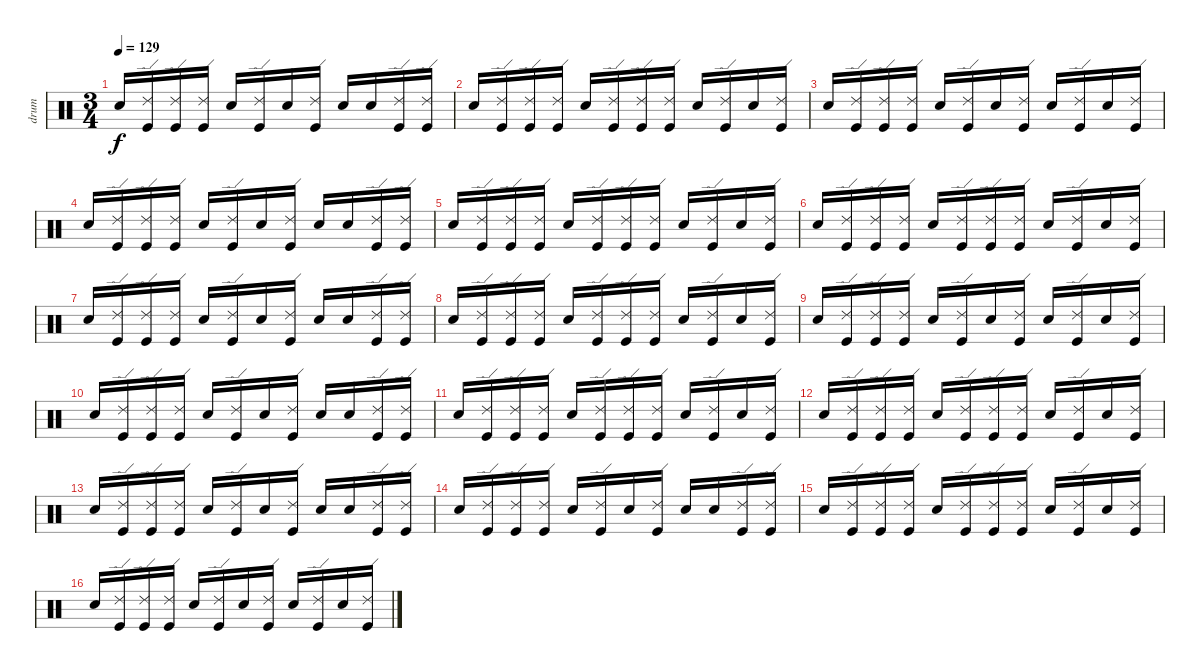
\track ("drum" "drum") {instrument percussion}
\staff {score}
\articulation defaults
\ts (3 4)
\tempo 129
\clef neutral
\ks c "Electric Snare (hit)".16{dy f}
("Kick (hit)" "Ride (edge) 2").16 ("Kick (hit)" "Ride (edge) 2").16 ("Kick (hit)" "Ride (edge) 2").16 "Electric Snare (hit)".16 ("Kick (hit)" "Ride (edge) 2").16 "Electric Snare (hit)".16 ("Kick (hit)" "Ride (edge) 2").16 "Electric Snare (hit)".16 "Electric Snare (hit)".16 ("Kick (hit)" "Ride (edge) 2").16 ("Kick (hit)" "Ride (edge) 2").16 |
"Electric Snare (hit)".16 ("Kick (hit)" "Ride (edge) 2").16 ("Kick (hit)" "Ride (edge) 2").16 ("Kick (hit)" "Ride (edge) 2").16 "Electric Snare (hit)".16 ("Kick (hit)" "Ride (edge) 2").16 ("Kick (hit)" "Ride (edge) 2").16 ("Kick (hit)" "Ride (edge) 2").16 "Electric Snare (hit)".16 ("Kick (hit)" "Ride (edge) 2").16 "Electric Snare (hit)".16 ("Kick (hit)" "Ride (edge) 2").16 |
"Electric Snare (hit)".16 ("Kick (hit)" "Ride (edge) 2").16 ("Kick (hit)" "Ride (edge) 2").16 ("Kick (hit)" "Ride (edge) 2").16 "Electric Snare (hit)".16 ("Kick (hit)" "Ride (edge) 2").16 "Electric Snare (hit)".16 ("Kick (hit)" "Ride (edge) 2").16 "Electric Snare (hit)".16 ("Kick (hit)" "Ride (edge) 2").16 "Electric Snare (hit)".16 ("Kick (hit)" "Ride (edge) 2").16 |
"Electric Snare (hit)".16 ("Kick (hit)" "Ride (edge) 2").16 ("Kick (hit)" "Ride (edge) 2").16 ("Kick (hit)" "Ride (edge) 2").16 "Electric Snare (hit)".16 ("Kick (hit)" "Ride (edge) 2").16 "Electric Snare (hit)".16 ("Kick (hit)" "Ride (edge) 2").16 "Electric Snare (hit)".16 "Electric Snare (hit)".16 ("Kick (hit)" "Ride (edge) 2").16 ("Kick (hit)" "Ride (edge) 2").16 |
"Electric Snare (hit)".16 ("Kick (hit)" "Ride (edge) 2").16 ("Kick (hit)" "Ride (edge) 2").16 ("Kick (hit)" "Ride (edge) 2").16 "Electric Snare (hit)".16 ("Kick (hit)" "Ride (edge) 2").16 ("Kick (hit)" "Ride (edge) 2").16 ("Kick (hit)" "Ride (edge) 2").16 "Electric Snare (hit)".16 ("Kick (hit)" "Ride (edge) 2").16 "Electric Snare (hit)".16 ("Kick (hit)" "Ride (edge) 2").16 |
"Electric Snare (hit)".16 ("Kick (hit)" "Ride (edge) 2").16 ("Kick (hit)" "Ride (edge) 2").16 ("Kick (hit)" "Ride (edge) 2").16 "Electric Snare (hit)".16 ("Kick (hit)" "Ride (edge) 2").16 ("Kick (hit)" "Ride (edge) 2").16 ("Kick (hit)" "Ride (edge) 2").16 "Electric Snare (hit)".16 ("Kick (hit)" "Ride (edge) 2").16 "Electric Snare (hit)".16 ("Kick (hit)" "Ride (edge) 2").16 |
"Electric Snare (hit)".16 ("Kick (hit)" "Ride (edge) 2").16 ("Kick (hit)" "Ride (edge) 2").16 ("Kick (hit)" "Ride (edge) 2").16 "Electric Snare (hit)".16 ("Kick (hit)" "Ride (edge) 2").16 "Electric Snare (hit)".16 ("Kick (hit)" "Ride (edge) 2").16 "Electric Snare (hit)".16 "Electric Snare (hit)".16 ("Kick (hit)" "Ride (edge) 2").16 ("Kick (hit)" "Ride (edge) 2").16 |
"Electric Snare (hit)".16 ("Kick (hit)" "Ride (edge) 2").16 ("Kick (hit)" "Ride (edge) 2").16 ("Kick (hit)" "Ride (edge) 2").16 "Electric Snare (hit)".16 ("Kick (hit)" "Ride (edge) 2").16 ("Kick (hit)" "Ride (edge) 2").16 ("Kick (hit)" "Ride (edge) 2").16 "Electric Snare (hit)".16 ("Kick (hit)" "Ride (edge) 2").16 "Electric Snare (hit)".16 ("Kick (hit)" "Ride (edge) 2").16 |
"Electric Snare (hit)".16 ("Kick (hit)" "Ride (edge) 2").16 ("Kick (hit)" "Ride (edge) 2").16 ("Kick (hit)" "Ride (edge) 2").16 "Electric Snare (hit)".16 ("Kick (hit)" "Ride (edge) 2").16 "Electric Snare (hit)".16 ("Kick (hit)" "Ride (edge) 2").16 "Electric Snare (hit)".16 ("Kick (hit)" "Ride (edge) 2").16 "Electric Snare (hit)".16 ("Kick (hit)" "Ride (edge) 2").16 |
"Electric Snare (hit)".16 ("Kick (hit)" "Ride (edge) 2").16 ("Kick (hit)" "Ride (edge) 2").16 ("Kick (hit)" "Ride (edge) 2").16 "Electric Snare (hit)".16 ("Kick (hit)" "Ride (edge) 2").16 "Electric Snare (hit)".16 ("Kick (hit)" "Ride (edge) 2").16 "Electric Snare (hit)".16 "Electric Snare (hit)".16 ("Kick (hit)" "Ride (edge) 2").16 ("Kick (hit)" "Ride (edge) 2").16 |
"Electric Snare (hit)".16 ("Kick (hit)" "Ride (edge) 2").16 ("Kick (hit)" "Ride (edge) 2").16 ("Kick (hit)" "Ride (edge) 2").16 "Electric Snare (hit)".16 ("Kick (hit)" "Ride (edge) 2").16 ("Kick (hit)" "Ride (edge) 2").16 ("Kick (hit)" "Ride (edge) 2").16 "Electric Snare (hit)".16 ("Kick (hit)" "Ride (edge) 2").16 "Electric Snare (hit)".16 ("Kick (hit)" "Ride (edge) 2").16 |
"Electric Snare (hit)".16 ("Kick (hit)" "Ride (edge) 2").16 ("Kick (hit)" "Ride (edge) 2").16 ("Kick (hit)" "Ride (edge) 2").16 "Electric Snare (hit)".16 ("Kick (hit)" "Ride (edge) 2").16 ("Kick (hit)" "Ride (edge) 2").16 ("Kick (hit)" "Ride (edge) 2").16 "Electric Snare (hit)".16 ("Kick (hit)" "Ride (edge) 2").16 "Electric Snare (hit)".16 ("Kick (hit)" "Ride (edge) 2").16 |
"Electric Snare (hit)".16 ("Kick (hit)" "Ride (edge) 2").16 ("Kick (hit)" "Ride (edge) 2").16 ("Kick (hit)" "Ride (edge) 2").16 "Electric Snare (hit)".16 ("Kick (hit)" "Ride (edge) 2").16 "Electric Snare (hit)".16 ("Kick (hit)" "Ride (edge) 2").16 "Electric Snare (hit)".16 "Electric Snare (hit)".16 ("Kick (hit)" "Ride (edge) 2").16 ("Kick (hit)" "Ride (edge) 2").16 |
"Electric Snare (hit)".16 ("Kick (hit)" "Ride (edge) 2").16 ("Kick (hit)" "Ride (edge) 2").16 ("Kick (hit)" "Ride (edge) 2").16 "Electric Snare (hit)".16 ("Kick (hit)" "Ride (edge) 2").16 "Electric Snare (hit)".16 ("Kick (hit)" "Ride (edge) 2").16 "Electric Snare (hit)".16 "Electric Snare (hit)".16 ("Kick (hit)" "Ride (edge) 2").16 ("Kick (hit)" "Ride (edge) 2").16 |
"Electric Snare (hit)".16 ("Kick (hit)" "Ride (edge) 2").16 ("Kick (hit)" "Ride (edge) 2").16 ("Kick (hit)" "Ride (edge) 2").16 "Electric Snare (hit)".16 ("Kick (hit)" "Ride (edge) 2").16 ("Kick (hit)" "Ride (edge) 2").16 ("Kick (hit)" "Ride (edge) 2").16 "Electric Snare (hit)".16 ("Kick (hit)" "Ride (edge) 2").16 "Electric Snare (hit)".16 ("Kick (hit)" "Ride (edge) 2").16 |
"Electric Snare (hit)".16 ("Kick (hit)" "Ride (edge) 2").16 ("Kick (hit)" "Ride (edge) 2").16 ("Kick (hit)" "Ride (edge) 2").16 "Electric Snare (hit)".16 ("Kick (hit)" "Ride (edge) 2").16 "Electric Snare (hit)".16 ("Kick (hit)" "Ride (edge) 2").16 "Electric Snare (hit)".16 ("Kick (hit)" "Ride (edge) 2").16 "Electric Snare (hit)".16 ("Kick (hit)" "Ride (edge) 2").16
